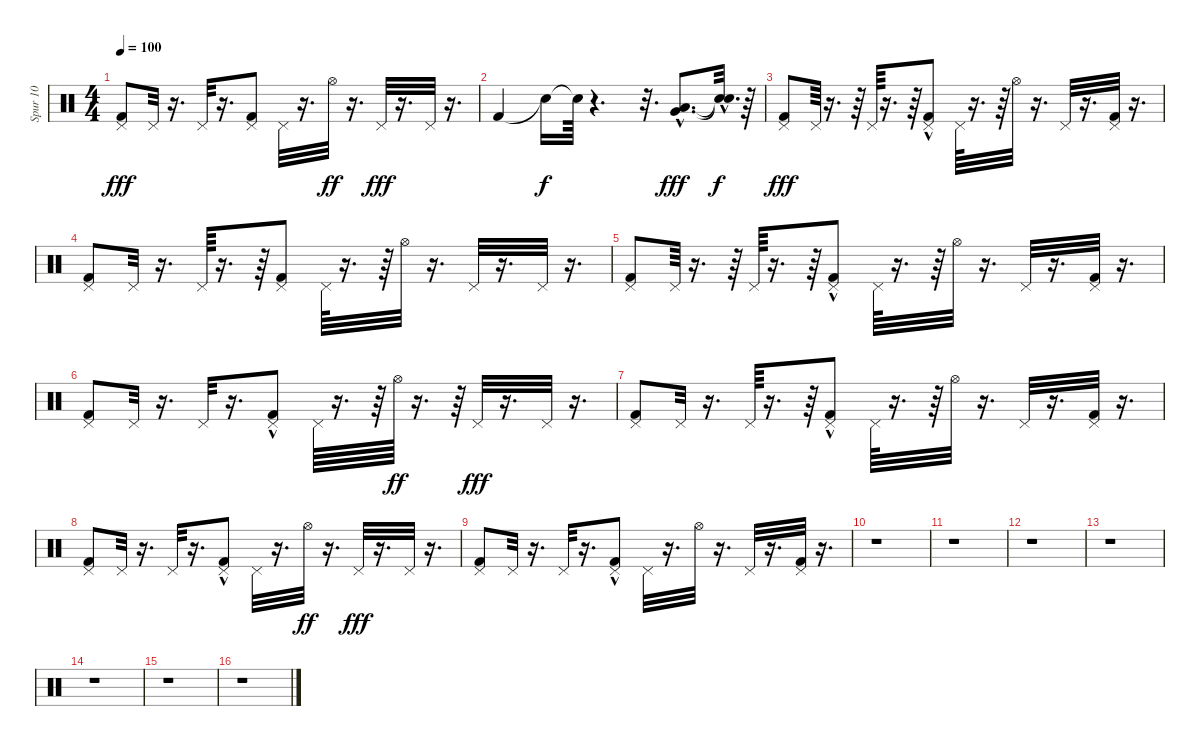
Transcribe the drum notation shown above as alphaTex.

\track ("Spur 10" "Spur 10") {instrument percussion}
\staff {score}
\articulation defaults
\ts (4 4)
\tempo 100
\clef neutral
\ks c
("Pedal Hi-Hat (hit)" "Kick (hit) 2").8{dy fff} "Pedal Hi-Hat (hit)".32 r.16{d} "Pedal Hi-Hat (hit)".32 r.16{d} ("Pedal Hi-Hat (hit)" "Kick (hit) 2").8 "Pedal Hi-Hat (hit)".32 r.16{d} "Hi-Hat (open)".32{dy ff} r.16{d} "Pedal Hi-Hat (hit)".32{dy fff} r.16{d} "Pedal Hi-Hat (hit)".32 r.16{d} |
"Kick (hit) 2".4 "Snare (hit)"{t}.16{dy f} "Snare (hit)"{t}.64 r.4{d} r.32{d} ("Very Low Tom (hit)"{hac} "Low Tom (hit)"{hac}).8{d dy fff} ("Snare (hit)"{hac t} "Snare (hit)"{hac t}).32{d dy f} r.64 |
("Pedal Hi-Hat (hit)" "Kick (hit) 2").8{dy fff} "Pedal Hi-Hat (hit)".64 r.16{d} r.64 "Pedal Hi-Hat (hit)".64 r.16{d} r.64 ("Pedal Hi-Hat (hit)" "Kick (hit) 2"{hac}).8 "Pedal Hi-Hat (hit)".64 r.16{d} r.64 "Hi-Hat (open)".32 r.16{d} "Pedal Hi-Hat (hit)".32 r.16{d} ("Pedal Hi-Hat (hit)" "Kick (hit) 2").32 r.16{d} |
("Pedal Hi-Hat (hit)" "Kick (hit) 2").8 "Pedal Hi-Hat (hit)".32 r.16{d} "Pedal Hi-Hat (hit)".64 r.16{d} r.64 ("Pedal Hi-Hat (hit)" "Kick (hit) 2").8 "Pedal Hi-Hat (hit)".64 r.16{d} r.64 "Hi-Hat (open)".32 r.16{d} "Pedal Hi-Hat (hit)".32 r.16{d} "Pedal Hi-Hat (hit)".32 r.16{d} |
("Pedal Hi-Hat (hit)" "Kick (hit) 2").8 "Pedal Hi-Hat (hit)".64 r.16{d} r.64 "Pedal Hi-Hat (hit)".64 r.16{d} r.64 ("Pedal Hi-Hat (hit)" "Kick (hit) 2"{hac}).8 "Pedal Hi-Hat (hit)".64 r.16{d} r.64 "Hi-Hat (open)".32 r.16{d} "Pedal Hi-Hat (hit)".32 r.16{d} ("Pedal Hi-Hat (hit)" "Kick (hit) 2").32 r.16{d} |
("Pedal Hi-Hat (hit)" "Kick (hit) 2").8 "Pedal Hi-Hat (hit)".32 r.16{d} "Pedal Hi-Hat (hit)".32 r.16{d} ("Pedal Hi-Hat (hit)" "Kick (hit) 2"{hac}).8 "Pedal Hi-Hat (hit)".64 r.16{d} r.64 "Hi-Hat (open)".64{dy ff} r.16{d} r.64 "Pedal Hi-Hat (hit)".32{dy fff} r.16{d} "Pedal Hi-Hat (hit)".32 r.16{d} |
("Pedal Hi-Hat (hit)" "Kick (hit) 2").8 "Pedal Hi-Hat (hit)".32 r.16{d} "Pedal Hi-Hat (hit)".64 r.16{d} r.64 ("Pedal Hi-Hat (hit)" "Kick (hit) 2"{hac}).8 "Pedal Hi-Hat (hit)".64 r.16{d} r.64 "Hi-Hat (open)".32 r.16{d} "Pedal Hi-Hat (hit)".32 r.16{d} ("Pedal Hi-Hat (hit)" "Kick (hit) 2").32 r.16{d} |
("Pedal Hi-Hat (hit)" "Kick (hit) 2").8 "Pedal Hi-Hat (hit)".32 r.16{d} "Pedal Hi-Hat (hit)".32 r.16{d} ("Pedal Hi-Hat (hit)" "Kick (hit) 2"{hac}).8 "Pedal Hi-Hat (hit)".32 r.16{d} "Hi-Hat (open)".32{dy ff} r.16{d} "Pedal Hi-Hat (hit)".32{dy fff} r.16{d} "Pedal Hi-Hat (hit)".32 r.16{d} |
("Pedal Hi-Hat (hit)" "Kick (hit) 2").8 "Pedal Hi-Hat (hit)".32 r.16{d} "Pedal Hi-Hat (hit)".32 r.16{d} ("Pedal Hi-Hat (hit)" "Kick (hit) 2"{hac}).8 "Pedal Hi-Hat (hit)".32 r.16{d} "Hi-Hat (open)".32 r.16{d} "Pedal Hi-Hat (hit)".32 r.16{d} ("Pedal Hi-Hat (hit)" "Kick (hit) 2").32 r.16{d} |
r.1 |
r.1 |
r.1 |
r.1 |
r.1 |
r.1 |
r.1
